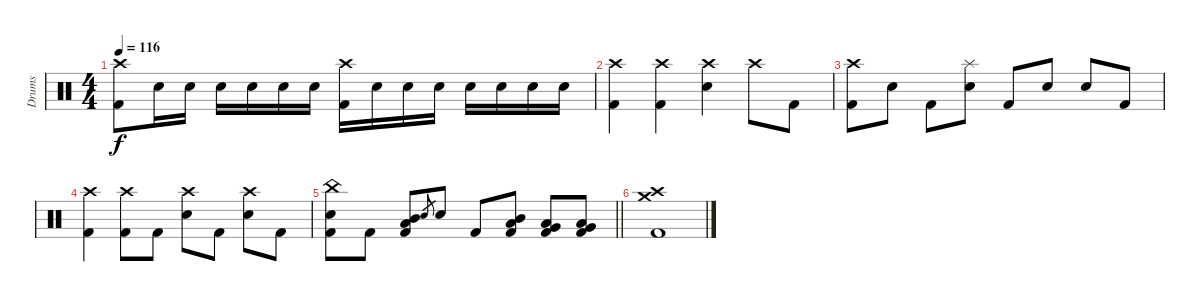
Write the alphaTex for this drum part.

\track ("Drums" "Drums") {instrument percussion}
\staff {score}
\articulation defaults
\ts (4 4)
\tempo 116
\clef neutral
\ks c
("Crash high (hit)" "Kick (hit) 2").8{dy f} "Electric Snare (hit)".16 "Electric Snare (hit)".16 "Electric Snare (hit)".16 "Electric Snare (hit)".16 "Electric Snare (hit)".16 "Electric Snare (hit)".16 ("Crash high (hit)" "Kick (hit) 2").16 "Electric Snare (hit)".16 "Electric Snare (hit)".16 "Electric Snare (hit)".16 "Electric Snare (hit)".16 "Electric Snare (hit)".16 "Electric Snare (hit)".16 "Electric Snare (hit)".16 |
("Crash high (hit)" "Kick (hit) 2").4 ("Crash high (hit)" "Kick (hit) 2").4 ("Crash high (hit)" "Electric Snare (hit)").4 "Crash high (hit)".8 "Kick (hit) 2".8 |
("Crash high (hit)" "Kick (hit) 2").8 "Electric Snare (hit)".8 "Kick (hit) 2".8 ("Splash (hit)" "Electric Snare (hit)").8 "Kick (hit) 2".8 "Electric Snare (hit)".8 "Electric Snare (hit)".8 "Kick (hit) 2".8 |
("Crash high (hit)" "Kick (hit) 2").4 ("Crash high (hit)" "Kick (hit) 2").8 "Kick (hit) 2".8 ("Crash high (hit)" "Electric Snare (hit)").8 "Kick (hit) 2".8 ("Crash high (hit)" "Electric Snare (hit)").8 "Kick (hit) 2".8 |
\barLineRight lightlight
("China (hit)" "Electric Snare (hit)" "Kick (hit) 2").8 "Kick (hit) 2".8 ("Mid Tom (hit)" "Low Tom (hit)" "Kick (hit) 2").8 "Electric Snare (hit)".8{gr} "Electric Snare (hit)".8 "Kick (hit) 2".8 ("Mid Tom (hit)" "Low Tom (hit)" "Kick (hit) 2").8 ("Low Tom (hit)" "Very Low Tom (hit)" "Kick (hit) 2").8 ("Very Low Tom (hit)" "Low Floor Tom (hit)" "Kick (hit) 2").8 |
("Crash high (hit)" "Crash medium (hit)" "Kick (hit) 2").1
